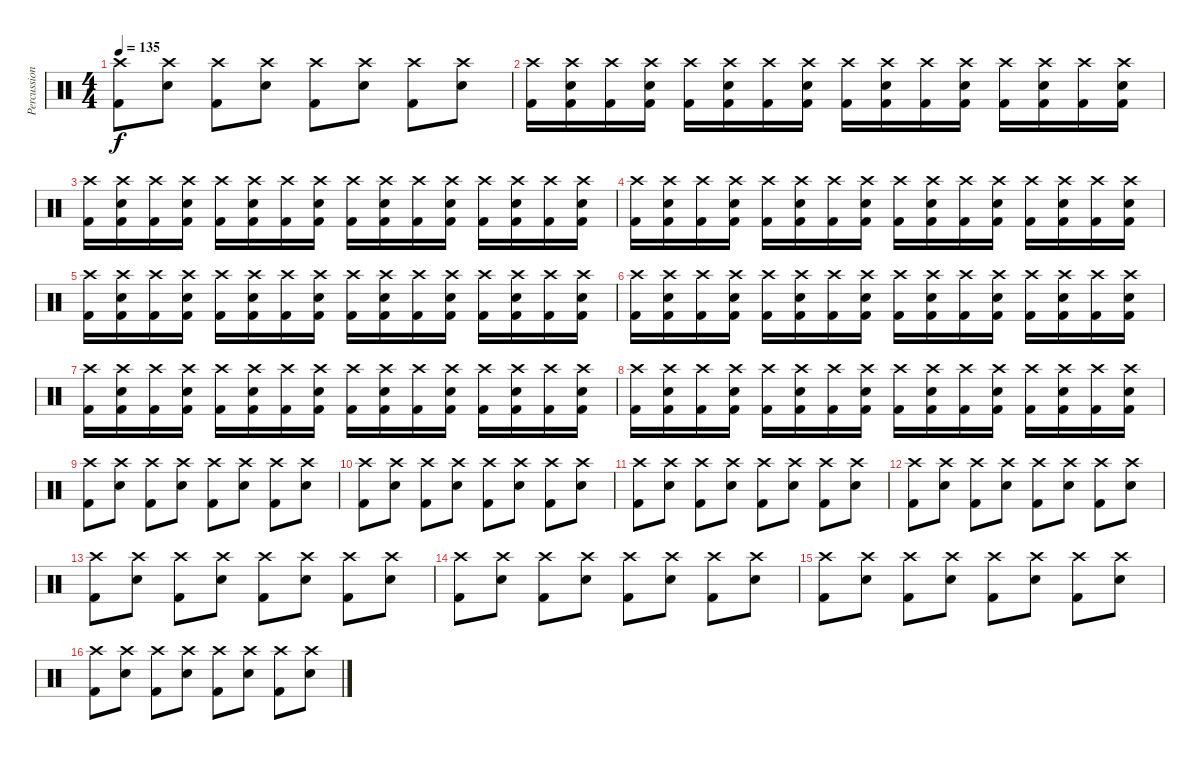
\track ("Percussion" "Percussion") {instrument percussion}
\staff {score}
\articulation defaults
\ts (4 4)
\tempo 135
\clef neutral
\ks c
("Crash high (hit)" "Kick (hit) 2").8{dy f} ("Crash high (hit)" "Electric Snare (hit)").8 ("Crash high (hit)" "Kick (hit) 2").8 ("Crash high (hit)" "Electric Snare (hit)").8 ("Crash high (hit)" "Kick (hit) 2").8 ("Crash high (hit)" "Electric Snare (hit)").8 ("Crash high (hit)" "Kick (hit) 2").8 ("Crash high (hit)" "Electric Snare (hit)").8 |
("Crash high (hit)" "Kick (hit) 2").16 ("Crash high (hit)" "Electric Snare (hit)" "Kick (hit) 2").16 ("Crash high (hit)" "Kick (hit) 2").16 ("Crash high (hit)" "Electric Snare (hit)" "Kick (hit) 2").16 ("Crash high (hit)" "Kick (hit) 2").16 ("Crash high (hit)" "Electric Snare (hit)" "Kick (hit) 2").16 ("Crash high (hit)" "Kick (hit) 2").16 ("Crash high (hit)" "Electric Snare (hit)" "Kick (hit) 2").16 ("Crash high (hit)" "Kick (hit) 2").16 ("Crash high (hit)" "Electric Snare (hit)" "Kick (hit) 2").16 ("Crash high (hit)" "Kick (hit) 2").16 ("Crash high (hit)" "Electric Snare (hit)" "Kick (hit) 2").16 ("Crash high (hit)" "Kick (hit) 2").16 ("Crash high (hit)" "Electric Snare (hit)" "Kick (hit) 2").16 ("Crash high (hit)" "Kick (hit) 2").16 ("Crash high (hit)" "Electric Snare (hit)" "Kick (hit) 2").16 |
("Crash high (hit)" "Kick (hit) 2").16 ("Crash high (hit)" "Electric Snare (hit)" "Kick (hit) 2").16 ("Crash high (hit)" "Kick (hit) 2").16 ("Crash high (hit)" "Electric Snare (hit)" "Kick (hit) 2").16 ("Crash high (hit)" "Kick (hit) 2").16 ("Crash high (hit)" "Electric Snare (hit)" "Kick (hit) 2").16 ("Crash high (hit)" "Kick (hit) 2").16 ("Crash high (hit)" "Electric Snare (hit)" "Kick (hit) 2").16 ("Crash high (hit)" "Kick (hit) 2").16 ("Crash high (hit)" "Electric Snare (hit)" "Kick (hit) 2").16 ("Crash high (hit)" "Kick (hit) 2").16 ("Crash high (hit)" "Electric Snare (hit)" "Kick (hit) 2").16 ("Crash high (hit)" "Kick (hit) 2").16 ("Crash high (hit)" "Electric Snare (hit)" "Kick (hit) 2").16 ("Crash high (hit)" "Kick (hit) 2").16 ("Crash high (hit)" "Electric Snare (hit)" "Kick (hit) 2").16 |
("Crash high (hit)" "Kick (hit) 2").16 ("Crash high (hit)" "Electric Snare (hit)" "Kick (hit) 2").16 ("Crash high (hit)" "Kick (hit) 2").16 ("Crash high (hit)" "Electric Snare (hit)" "Kick (hit) 2").16 ("Crash high (hit)" "Kick (hit) 2").16 ("Crash high (hit)" "Electric Snare (hit)" "Kick (hit) 2").16 ("Crash high (hit)" "Kick (hit) 2").16 ("Crash high (hit)" "Electric Snare (hit)" "Kick (hit) 2").16 ("Crash high (hit)" "Kick (hit) 2").16 ("Crash high (hit)" "Electric Snare (hit)" "Kick (hit) 2").16 ("Crash high (hit)" "Kick (hit) 2").16 ("Crash high (hit)" "Electric Snare (hit)" "Kick (hit) 2").16 ("Crash high (hit)" "Kick (hit) 2").16 ("Crash high (hit)" "Electric Snare (hit)" "Kick (hit) 2").16 ("Crash high (hit)" "Kick (hit) 2").16 ("Crash high (hit)" "Electric Snare (hit)" "Kick (hit) 2").16 |
("Crash high (hit)" "Kick (hit) 2").16 ("Crash high (hit)" "Electric Snare (hit)" "Kick (hit) 2").16 ("Crash high (hit)" "Kick (hit) 2").16 ("Crash high (hit)" "Electric Snare (hit)" "Kick (hit) 2").16 ("Crash high (hit)" "Kick (hit) 2").16 ("Crash high (hit)" "Electric Snare (hit)" "Kick (hit) 2").16 ("Crash high (hit)" "Kick (hit) 2").16 ("Crash high (hit)" "Electric Snare (hit)" "Kick (hit) 2").16 ("Crash high (hit)" "Kick (hit) 2").16 ("Crash high (hit)" "Electric Snare (hit)" "Kick (hit) 2").16 ("Crash high (hit)" "Kick (hit) 2").16 ("Crash high (hit)" "Electric Snare (hit)" "Kick (hit) 2").16 ("Crash high (hit)" "Kick (hit) 2").16 ("Crash high (hit)" "Electric Snare (hit)" "Kick (hit) 2").16 ("Crash high (hit)" "Kick (hit) 2").16 ("Crash high (hit)" "Electric Snare (hit)" "Kick (hit) 2").16 |
("Crash high (hit)" "Kick (hit) 2").16 ("Crash high (hit)" "Electric Snare (hit)" "Kick (hit) 2").16 ("Crash high (hit)" "Kick (hit) 2").16 ("Crash high (hit)" "Electric Snare (hit)" "Kick (hit) 2").16 ("Crash high (hit)" "Kick (hit) 2").16 ("Crash high (hit)" "Electric Snare (hit)" "Kick (hit) 2").16 ("Crash high (hit)" "Kick (hit) 2").16 ("Crash high (hit)" "Electric Snare (hit)" "Kick (hit) 2").16 ("Crash high (hit)" "Kick (hit) 2").16 ("Crash high (hit)" "Electric Snare (hit)" "Kick (hit) 2").16 ("Crash high (hit)" "Kick (hit) 2").16 ("Crash high (hit)" "Electric Snare (hit)" "Kick (hit) 2").16 ("Crash high (hit)" "Kick (hit) 2").16 ("Crash high (hit)" "Electric Snare (hit)" "Kick (hit) 2").16 ("Crash high (hit)" "Kick (hit) 2").16 ("Crash high (hit)" "Electric Snare (hit)" "Kick (hit) 2").16 |
("Crash high (hit)" "Kick (hit) 2").16 ("Crash high (hit)" "Electric Snare (hit)" "Kick (hit) 2").16 ("Crash high (hit)" "Kick (hit) 2").16 ("Crash high (hit)" "Electric Snare (hit)" "Kick (hit) 2").16 ("Crash high (hit)" "Kick (hit) 2").16 ("Crash high (hit)" "Electric Snare (hit)" "Kick (hit) 2").16 ("Crash high (hit)" "Kick (hit) 2").16 ("Crash high (hit)" "Electric Snare (hit)" "Kick (hit) 2").16 ("Crash high (hit)" "Kick (hit) 2").16 ("Crash high (hit)" "Electric Snare (hit)" "Kick (hit) 2").16 ("Crash high (hit)" "Kick (hit) 2").16 ("Crash high (hit)" "Electric Snare (hit)" "Kick (hit) 2").16 ("Crash high (hit)" "Kick (hit) 2").16 ("Crash high (hit)" "Electric Snare (hit)" "Kick (hit) 2").16 ("Crash high (hit)" "Kick (hit) 2").16 ("Crash high (hit)" "Electric Snare (hit)" "Kick (hit) 2").16 |
("Crash high (hit)" "Kick (hit) 2").16 ("Crash high (hit)" "Electric Snare (hit)" "Kick (hit) 2").16 ("Crash high (hit)" "Kick (hit) 2").16 ("Crash high (hit)" "Electric Snare (hit)" "Kick (hit) 2").16 ("Crash high (hit)" "Kick (hit) 2").16 ("Crash high (hit)" "Electric Snare (hit)" "Kick (hit) 2").16 ("Crash high (hit)" "Kick (hit) 2").16 ("Crash high (hit)" "Electric Snare (hit)" "Kick (hit) 2").16 ("Crash high (hit)" "Kick (hit) 2").16 ("Crash high (hit)" "Electric Snare (hit)" "Kick (hit) 2").16 ("Crash high (hit)" "Kick (hit) 2").16 ("Crash high (hit)" "Electric Snare (hit)" "Kick (hit) 2").16 ("Crash high (hit)" "Kick (hit) 2").16 ("Crash high (hit)" "Electric Snare (hit)" "Kick (hit) 2").16 ("Crash high (hit)" "Kick (hit) 2").16 ("Crash high (hit)" "Electric Snare (hit)" "Kick (hit) 2").16 |
("Crash high (hit)" "Kick (hit) 2").8 ("Crash high (hit)" "Electric Snare (hit)").8 ("Crash high (hit)" "Kick (hit) 2").8 ("Crash high (hit)" "Electric Snare (hit)").8 ("Crash high (hit)" "Kick (hit) 2").8 ("Crash high (hit)" "Electric Snare (hit)").8 ("Crash high (hit)" "Kick (hit) 2").8 ("Crash high (hit)" "Electric Snare (hit)").8 |
("Crash high (hit)" "Kick (hit) 2").8 ("Crash high (hit)" "Electric Snare (hit)").8 ("Crash high (hit)" "Kick (hit) 2").8 ("Crash high (hit)" "Electric Snare (hit)").8 ("Crash high (hit)" "Kick (hit) 2").8 ("Crash high (hit)" "Electric Snare (hit)").8 ("Crash high (hit)" "Kick (hit) 2").8 ("Crash high (hit)" "Electric Snare (hit)").8 |
("Crash high (hit)" "Kick (hit) 2").8 ("Crash high (hit)" "Electric Snare (hit)").8 ("Crash high (hit)" "Kick (hit) 2").8 ("Crash high (hit)" "Electric Snare (hit)").8 ("Crash high (hit)" "Kick (hit) 2").8 ("Crash high (hit)" "Electric Snare (hit)").8 ("Crash high (hit)" "Kick (hit) 2").8 ("Crash high (hit)" "Electric Snare (hit)").8 |
("Crash high (hit)" "Kick (hit) 2").8 ("Crash high (hit)" "Electric Snare (hit)").8 ("Crash high (hit)" "Kick (hit) 2").8 ("Crash high (hit)" "Electric Snare (hit)").8 ("Crash high (hit)" "Kick (hit) 2").8 ("Crash high (hit)" "Electric Snare (hit)").8 ("Crash high (hit)" "Kick (hit) 2").8 ("Crash high (hit)" "Electric Snare (hit)").8 |
("Crash high (hit)" "Kick (hit) 2").8 ("Crash high (hit)" "Electric Snare (hit)").8 ("Crash high (hit)" "Kick (hit) 2").8 ("Crash high (hit)" "Electric Snare (hit)").8 ("Crash high (hit)" "Kick (hit) 2").8 ("Crash high (hit)" "Electric Snare (hit)").8 ("Crash high (hit)" "Kick (hit) 2").8 ("Crash high (hit)" "Electric Snare (hit)").8 |
("Crash high (hit)" "Kick (hit) 2").8 ("Crash high (hit)" "Electric Snare (hit)").8 ("Crash high (hit)" "Kick (hit) 2").8 ("Crash high (hit)" "Electric Snare (hit)").8 ("Crash high (hit)" "Kick (hit) 2").8 ("Crash high (hit)" "Electric Snare (hit)").8 ("Crash high (hit)" "Kick (hit) 2").8 ("Crash high (hit)" "Electric Snare (hit)").8 |
("Crash high (hit)" "Kick (hit) 2").8 ("Crash high (hit)" "Electric Snare (hit)").8 ("Crash high (hit)" "Kick (hit) 2").8 ("Crash high (hit)" "Electric Snare (hit)").8 ("Crash high (hit)" "Kick (hit) 2").8 ("Crash high (hit)" "Electric Snare (hit)").8 ("Crash high (hit)" "Kick (hit) 2").8 ("Crash high (hit)" "Electric Snare (hit)").8 |
("Crash high (hit)" "Kick (hit) 2").8 ("Crash high (hit)" "Electric Snare (hit)").8 ("Crash high (hit)" "Kick (hit) 2").8 ("Crash high (hit)" "Electric Snare (hit)").8 ("Crash high (hit)" "Kick (hit) 2").8 ("Crash high (hit)" "Electric Snare (hit)").8 ("Crash high (hit)" "Kick (hit) 2").8 ("Crash high (hit)" "Electric Snare (hit)").8
